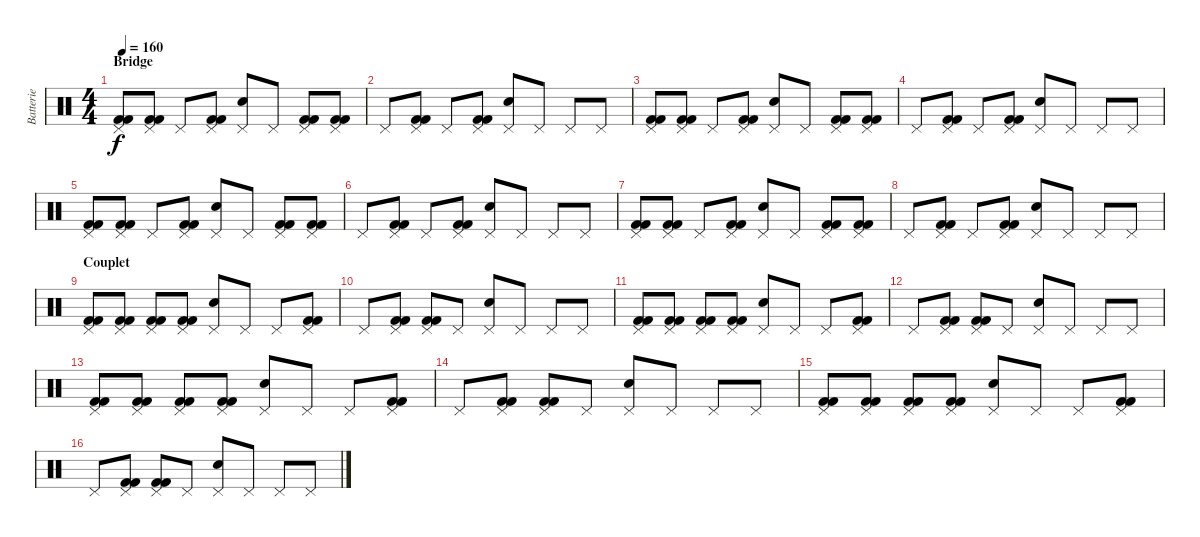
\track ("Batterie" "Batterie") {instrument percussion}
\staff {score}
\articulation defaults
\ts (4 4)
\section ("" "Bridge")
\tempo 160
\clef neutral
\ks c
("Pedal Hi-Hat (hit)" "Kick (hit) 2" "Kick (hit) 2").8{dy f} ("Pedal Hi-Hat (hit)" "Kick (hit) 2" "Kick (hit) 2").8 "Pedal Hi-Hat (hit)".8 ("Pedal Hi-Hat (hit)" "Kick (hit) 2" "Kick (hit) 2").8 ("Pedal Hi-Hat (hit)" "Electric Snare (hit)").8 "Pedal Hi-Hat (hit)".8 ("Pedal Hi-Hat (hit)" "Kick (hit) 2" "Kick (hit) 2").8 ("Pedal Hi-Hat (hit)" "Kick (hit) 2" "Kick (hit) 2").8 |
"Pedal Hi-Hat (hit)".8 ("Pedal Hi-Hat (hit)" "Kick (hit) 2" "Kick (hit) 2").8 "Pedal Hi-Hat (hit)".8 ("Pedal Hi-Hat (hit)" "Kick (hit) 2" "Kick (hit) 2").8 ("Pedal Hi-Hat (hit)" "Electric Snare (hit)").8 "Pedal Hi-Hat (hit)".8 "Pedal Hi-Hat (hit)".8 "Pedal Hi-Hat (hit)".8 |
("Pedal Hi-Hat (hit)" "Kick (hit) 2" "Kick (hit) 2").8 ("Pedal Hi-Hat (hit)" "Kick (hit) 2" "Kick (hit) 2").8 "Pedal Hi-Hat (hit)".8 ("Pedal Hi-Hat (hit)" "Kick (hit) 2" "Kick (hit) 2").8 ("Pedal Hi-Hat (hit)" "Electric Snare (hit)").8 "Pedal Hi-Hat (hit)".8 ("Pedal Hi-Hat (hit)" "Kick (hit) 2" "Kick (hit) 2").8 ("Pedal Hi-Hat (hit)" "Kick (hit) 2" "Kick (hit) 2").8 |
"Pedal Hi-Hat (hit)".8 ("Pedal Hi-Hat (hit)" "Kick (hit) 2" "Kick (hit) 2").8 "Pedal Hi-Hat (hit)".8 ("Pedal Hi-Hat (hit)" "Kick (hit) 2" "Kick (hit) 2").8 ("Pedal Hi-Hat (hit)" "Electric Snare (hit)").8 "Pedal Hi-Hat (hit)".8 "Pedal Hi-Hat (hit)".8 "Pedal Hi-Hat (hit)".8 |
("Pedal Hi-Hat (hit)" "Kick (hit) 2" "Kick (hit) 2").8 ("Pedal Hi-Hat (hit)" "Kick (hit) 2" "Kick (hit) 2").8 "Pedal Hi-Hat (hit)".8 ("Pedal Hi-Hat (hit)" "Kick (hit) 2" "Kick (hit) 2").8 ("Pedal Hi-Hat (hit)" "Electric Snare (hit)").8 "Pedal Hi-Hat (hit)".8 ("Pedal Hi-Hat (hit)" "Kick (hit) 2" "Kick (hit) 2").8 ("Pedal Hi-Hat (hit)" "Kick (hit) 2" "Kick (hit) 2").8 |
"Pedal Hi-Hat (hit)".8 ("Pedal Hi-Hat (hit)" "Kick (hit) 2" "Kick (hit) 2").8 "Pedal Hi-Hat (hit)".8 ("Pedal Hi-Hat (hit)" "Kick (hit) 2" "Kick (hit) 2").8 ("Pedal Hi-Hat (hit)" "Electric Snare (hit)").8 "Pedal Hi-Hat (hit)".8 "Pedal Hi-Hat (hit)".8 "Pedal Hi-Hat (hit)".8 |
("Pedal Hi-Hat (hit)" "Kick (hit) 2" "Kick (hit) 2").8 ("Pedal Hi-Hat (hit)" "Kick (hit) 2" "Kick (hit) 2").8 "Pedal Hi-Hat (hit)".8 ("Pedal Hi-Hat (hit)" "Kick (hit) 2" "Kick (hit) 2").8 ("Pedal Hi-Hat (hit)" "Electric Snare (hit)").8 "Pedal Hi-Hat (hit)".8 ("Pedal Hi-Hat (hit)" "Kick (hit) 2" "Kick (hit) 2").8 ("Pedal Hi-Hat (hit)" "Kick (hit) 2" "Kick (hit) 2").8 |
"Pedal Hi-Hat (hit)".8 ("Pedal Hi-Hat (hit)" "Kick (hit) 2" "Kick (hit) 2").8 "Pedal Hi-Hat (hit)".8 ("Pedal Hi-Hat (hit)" "Kick (hit) 2" "Kick (hit) 2").8 ("Pedal Hi-Hat (hit)" "Electric Snare (hit)").8 "Pedal Hi-Hat (hit)".8 "Pedal Hi-Hat (hit)".8 "Pedal Hi-Hat (hit)".8 |
\section ("" "Couplet")
("Pedal Hi-Hat (hit)" "Kick (hit) 2" "Kick (hit) 2").8 ("Pedal Hi-Hat (hit)" "Kick (hit) 2" "Kick (hit) 2").8 ("Pedal Hi-Hat (hit)" "Kick (hit) 2" "Kick (hit) 2").8 ("Pedal Hi-Hat (hit)" "Kick (hit) 2" "Kick (hit) 2").8 ("Pedal Hi-Hat (hit)" "Electric Snare (hit)").8 "Pedal Hi-Hat (hit)".8 "Pedal Hi-Hat (hit)".8 ("Pedal Hi-Hat (hit)" "Kick (hit) 2" "Kick (hit) 2").8 |
"Pedal Hi-Hat (hit)".8 ("Pedal Hi-Hat (hit)" "Kick (hit) 2" "Kick (hit) 2").8 ("Pedal Hi-Hat (hit)" "Kick (hit) 2" "Kick (hit) 2").8 "Pedal Hi-Hat (hit)".8 ("Pedal Hi-Hat (hit)" "Electric Snare (hit)").8 "Pedal Hi-Hat (hit)".8 "Pedal Hi-Hat (hit)".8 "Pedal Hi-Hat (hit)".8 |
("Pedal Hi-Hat (hit)" "Kick (hit) 2" "Kick (hit) 2").8 ("Pedal Hi-Hat (hit)" "Kick (hit) 2" "Kick (hit) 2").8 ("Pedal Hi-Hat (hit)" "Kick (hit) 2" "Kick (hit) 2").8 ("Pedal Hi-Hat (hit)" "Kick (hit) 2" "Kick (hit) 2").8 ("Pedal Hi-Hat (hit)" "Electric Snare (hit)").8 "Pedal Hi-Hat (hit)".8 "Pedal Hi-Hat (hit)".8 ("Pedal Hi-Hat (hit)" "Kick (hit) 2" "Kick (hit) 2").8 |
"Pedal Hi-Hat (hit)".8 ("Pedal Hi-Hat (hit)" "Kick (hit) 2" "Kick (hit) 2").8 ("Pedal Hi-Hat (hit)" "Kick (hit) 2" "Kick (hit) 2").8 "Pedal Hi-Hat (hit)".8 ("Pedal Hi-Hat (hit)" "Electric Snare (hit)").8 "Pedal Hi-Hat (hit)".8 "Pedal Hi-Hat (hit)".8 "Pedal Hi-Hat (hit)".8 |
("Pedal Hi-Hat (hit)" "Kick (hit) 2" "Kick (hit) 2").8 ("Pedal Hi-Hat (hit)" "Kick (hit) 2" "Kick (hit) 2").8 ("Pedal Hi-Hat (hit)" "Kick (hit) 2" "Kick (hit) 2").8 ("Pedal Hi-Hat (hit)" "Kick (hit) 2" "Kick (hit) 2").8 ("Pedal Hi-Hat (hit)" "Electric Snare (hit)").8 "Pedal Hi-Hat (hit)".8 "Pedal Hi-Hat (hit)".8 ("Pedal Hi-Hat (hit)" "Kick (hit) 2" "Kick (hit) 2").8 |
"Pedal Hi-Hat (hit)".8 ("Pedal Hi-Hat (hit)" "Kick (hit) 2" "Kick (hit) 2").8 ("Pedal Hi-Hat (hit)" "Kick (hit) 2" "Kick (hit) 2").8 "Pedal Hi-Hat (hit)".8 ("Pedal Hi-Hat (hit)" "Electric Snare (hit)").8 "Pedal Hi-Hat (hit)".8 "Pedal Hi-Hat (hit)".8 "Pedal Hi-Hat (hit)".8 |
("Pedal Hi-Hat (hit)" "Kick (hit) 2" "Kick (hit) 2").8 ("Pedal Hi-Hat (hit)" "Kick (hit) 2" "Kick (hit) 2").8 ("Pedal Hi-Hat (hit)" "Kick (hit) 2" "Kick (hit) 2").8 ("Pedal Hi-Hat (hit)" "Kick (hit) 2" "Kick (hit) 2").8 ("Pedal Hi-Hat (hit)" "Electric Snare (hit)").8 "Pedal Hi-Hat (hit)".8 "Pedal Hi-Hat (hit)".8 ("Pedal Hi-Hat (hit)" "Kick (hit) 2" "Kick (hit) 2").8 |
"Pedal Hi-Hat (hit)".8 ("Pedal Hi-Hat (hit)" "Kick (hit) 2" "Kick (hit) 2").8 ("Pedal Hi-Hat (hit)" "Kick (hit) 2" "Kick (hit) 2").8 "Pedal Hi-Hat (hit)".8 ("Pedal Hi-Hat (hit)" "Electric Snare (hit)").8 "Pedal Hi-Hat (hit)".8 "Pedal Hi-Hat (hit)".8 "Pedal Hi-Hat (hit)".8
